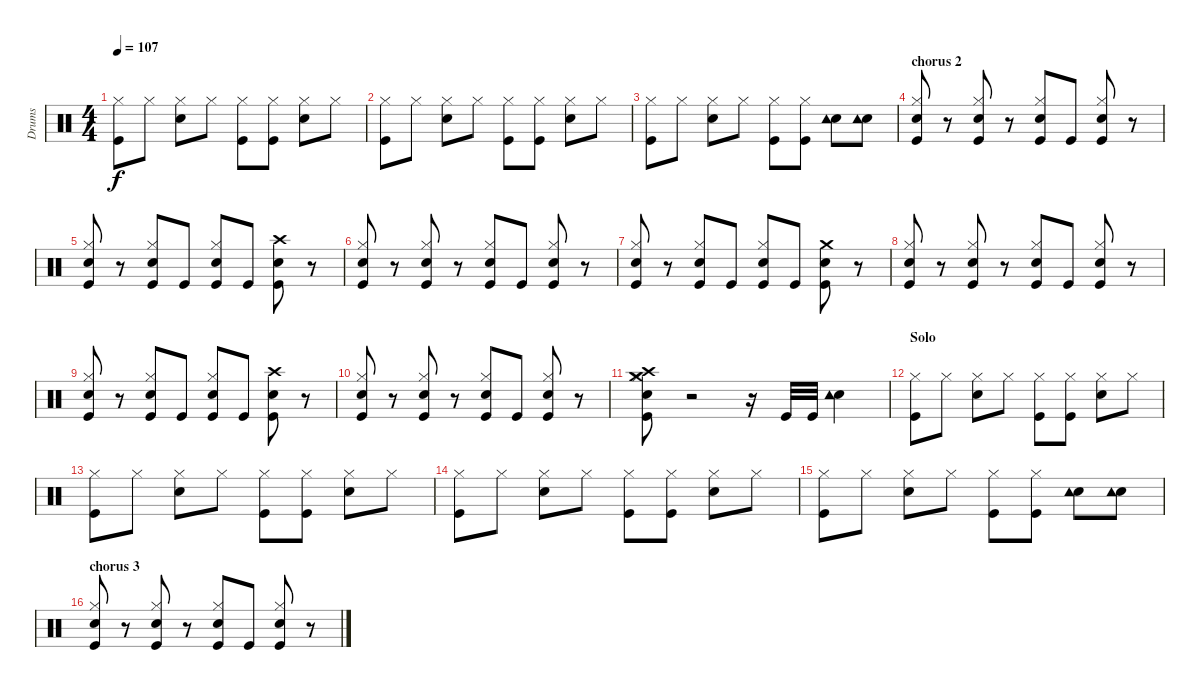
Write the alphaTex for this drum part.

\track ("Drums" "Drums") {instrument percussion}
\staff {score}
\articulation defaults
\ts (4 4)
\tempo 107
\clef neutral
\ks c
("Kick (hit)" "Hi-Hat (closed)").8{dy f} "Hi-Hat (closed)".8 ("Electric Snare (hit)" "Hi-Hat (closed)").8 "Hi-Hat (closed)".8 ("Kick (hit)" "Hi-Hat (closed)").8 ("Kick (hit)" "Hi-Hat (closed)").8 ("Electric Snare (hit)" "Hi-Hat (closed)").8 "Hi-Hat (closed)".8 |
("Kick (hit)" "Hi-Hat (closed)").8 "Hi-Hat (closed)".8 ("Electric Snare (hit)" "Hi-Hat (closed)").8 "Hi-Hat (closed)".8 ("Kick (hit)" "Hi-Hat (closed)").8 ("Kick (hit)" "Hi-Hat (closed)").8 ("Electric Snare (hit)" "Hi-Hat (closed)").8 "Hi-Hat (closed)".8 |
("Kick (hit)" "Hi-Hat (closed)").8 "Hi-Hat (closed)".8 ("Electric Snare (hit)" "Hi-Hat (closed)").8 "Hi-Hat (closed)".8 ("Kick (hit)" "Hi-Hat (closed)").8 ("Kick (hit)" "Hi-Hat (closed)").8 ("Electric Snare (hit)" "Tambourine (hit)").8 ("Electric Snare (hit)" "Tambourine (hit)").8 |
\section ("" "chorus 2")
("Kick (hit)" "Electric Snare (hit)" "Hi-Hat (closed)").8 r.8 ("Kick (hit)" "Electric Snare (hit)" "Hi-Hat (closed)").8 r.8 ("Kick (hit)" "Electric Snare (hit)" "Hi-Hat (closed)").8 "Kick (hit)".8 ("Kick (hit)" "Electric Snare (hit)" "Hi-Hat (closed)").8 r.8 |
("Kick (hit)" "Electric Snare (hit)" "Hi-Hat (closed)").8 r.8 ("Kick (hit)" "Electric Snare (hit)" "Hi-Hat (closed)").8 "Kick (hit)".8 ("Kick (hit)" "Electric Snare (hit)" "Hi-Hat (closed)").8 "Kick (hit)".8 ("Kick (hit)" "Electric Snare (hit)" "Crash high (hit)").8 r.8 |
("Kick (hit)" "Electric Snare (hit)" "Hi-Hat (closed)").8 r.8 ("Kick (hit)" "Electric Snare (hit)" "Hi-Hat (closed)").8 r.8 ("Kick (hit)" "Electric Snare (hit)" "Hi-Hat (closed)").8 "Kick (hit)".8 ("Kick (hit)" "Electric Snare (hit)" "Hi-Hat (closed)").8 r.8 |
("Kick (hit)" "Electric Snare (hit)" "Hi-Hat (closed)").8 r.8 ("Kick (hit)" "Electric Snare (hit)" "Hi-Hat (closed)").8 "Kick (hit)".8 ("Kick (hit)" "Electric Snare (hit)" "Hi-Hat (closed)").8 "Kick (hit)".8 ("Kick (hit)" "Electric Snare (hit)" "Crash medium (hit)").8 r.8 |
("Kick (hit)" "Electric Snare (hit)" "Hi-Hat (closed)").8 r.8 ("Kick (hit)" "Electric Snare (hit)" "Hi-Hat (closed)").8 r.8 ("Kick (hit)" "Electric Snare (hit)" "Hi-Hat (closed)").8 "Kick (hit)".8 ("Kick (hit)" "Electric Snare (hit)" "Hi-Hat (closed)").8 r.8 |
("Kick (hit)" "Electric Snare (hit)" "Hi-Hat (closed)").8 r.8 ("Kick (hit)" "Electric Snare (hit)" "Hi-Hat (closed)").8 "Kick (hit)".8 ("Kick (hit)" "Electric Snare (hit)" "Hi-Hat (closed)").8 "Kick (hit)".8 ("Kick (hit)" "Electric Snare (hit)" "Crash high (hit)").8 r.8 |
("Kick (hit)" "Electric Snare (hit)" "Hi-Hat (closed)").8 r.8 ("Kick (hit)" "Electric Snare (hit)" "Hi-Hat (closed)").8 r.8 ("Kick (hit)" "Electric Snare (hit)" "Hi-Hat (closed)").8 "Kick (hit)".8 ("Kick (hit)" "Electric Snare (hit)" "Hi-Hat (closed)").8 r.8 |
("Kick (hit)" "Electric Snare (hit)" "Hi-Hat (closed)" "Crash high (hit)" "Crash medium (hit)").8 r.2 r.16 "Kick (hit)".32 "Kick (hit)".32 ("Electric Snare (hit)" "Tambourine (hit)").4 |
\section ("" "Solo")
("Kick (hit)" "Hi-Hat (closed)").8 "Hi-Hat (closed)".8 ("Electric Snare (hit)" "Hi-Hat (closed)").8 "Hi-Hat (closed)".8 ("Kick (hit)" "Hi-Hat (closed)").8 ("Kick (hit)" "Hi-Hat (closed)").8 ("Electric Snare (hit)" "Hi-Hat (closed)").8 "Hi-Hat (closed)".8 |
("Kick (hit)" "Hi-Hat (closed)").8 "Hi-Hat (closed)".8 ("Electric Snare (hit)" "Hi-Hat (closed)").8 "Hi-Hat (closed)".8 ("Kick (hit)" "Hi-Hat (closed)").8 ("Kick (hit)" "Hi-Hat (closed)").8 ("Electric Snare (hit)" "Hi-Hat (closed)").8 "Hi-Hat (closed)".8 |
("Kick (hit)" "Hi-Hat (closed)").8 "Hi-Hat (closed)".8 ("Electric Snare (hit)" "Hi-Hat (closed)").8 "Hi-Hat (closed)".8 ("Kick (hit)" "Hi-Hat (closed)").8 ("Kick (hit)" "Hi-Hat (closed)").8 ("Electric Snare (hit)" "Hi-Hat (closed)").8 "Hi-Hat (closed)".8 |
("Kick (hit)" "Hi-Hat (closed)").8 "Hi-Hat (closed)".8 ("Electric Snare (hit)" "Hi-Hat (closed)").8 "Hi-Hat (closed)".8 ("Kick (hit)" "Hi-Hat (closed)").8 ("Kick (hit)" "Hi-Hat (closed)").8 ("Electric Snare (hit)" "Tambourine (hit)").8 ("Electric Snare (hit)" "Tambourine (hit)").8 |
\section ("" "chorus 3")
("Kick (hit)" "Electric Snare (hit)" "Hi-Hat (closed)").8 r.8 ("Kick (hit)" "Electric Snare (hit)" "Hi-Hat (closed)").8 r.8 ("Kick (hit)" "Electric Snare (hit)" "Hi-Hat (closed)").8 "Kick (hit)".8 ("Kick (hit)" "Electric Snare (hit)" "Hi-Hat (closed)").8 r.8
